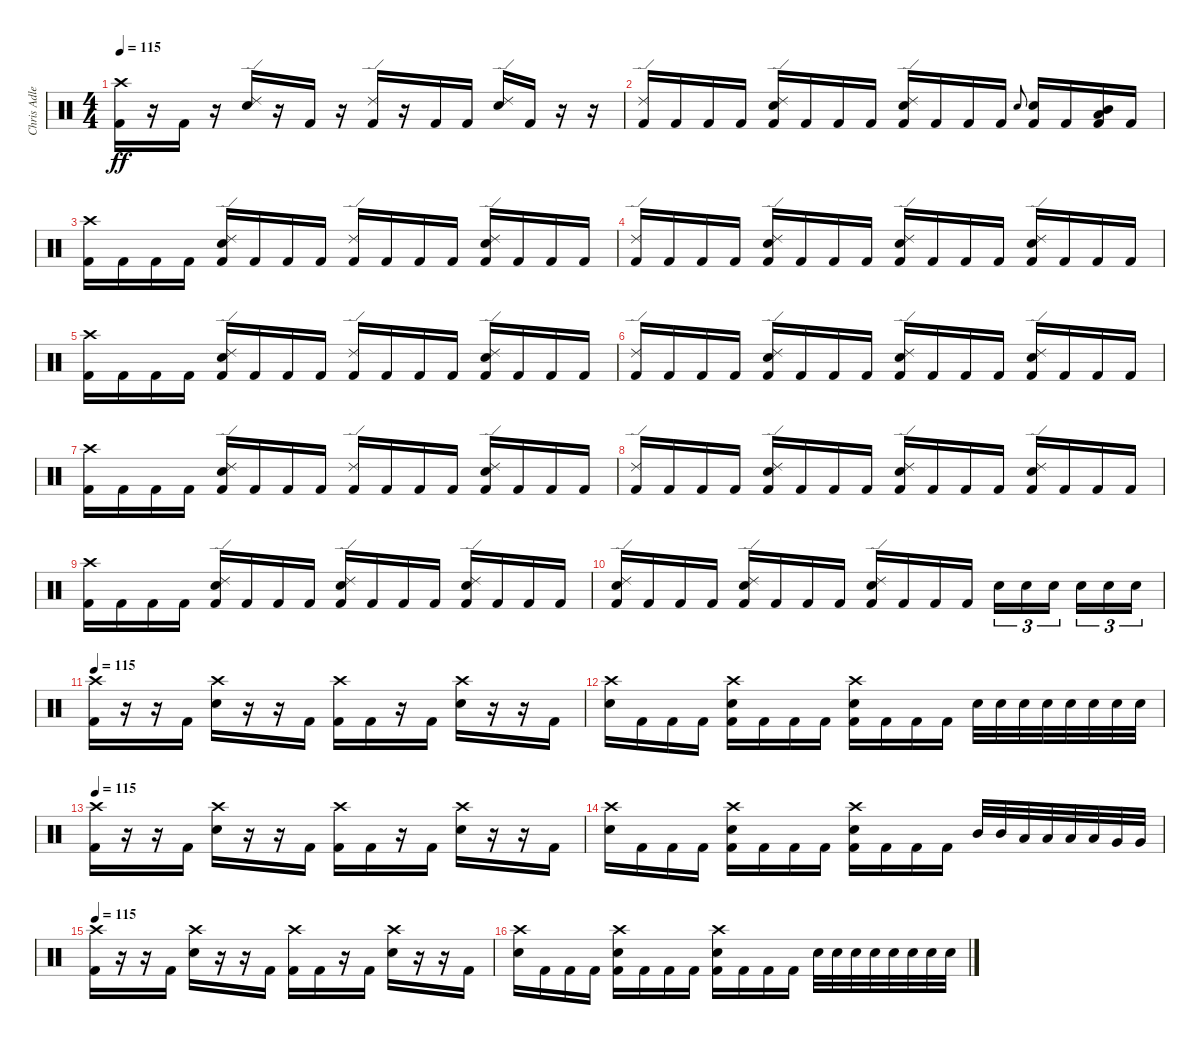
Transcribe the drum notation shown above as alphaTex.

\track ("Chris Adler" "Chris Adle") {instrument percussion}
\staff {score}
\articulation defaults
\ts (4 4)
\tempo 115
\clef neutral
\ks c
("Crash high (hit)" "Kick (hit) 2").16{dy ff} r.16 "Kick (hit) 2".16 r.16 ("Ride (edge) 2" "Snare (hit) 2").16 r.16 "Kick (hit) 2".16 r.16 ("Ride (edge) 2" "Kick (hit) 2").16 r.16 "Kick (hit) 2".16 "Kick (hit) 2".16 ("Ride (edge) 2" "Snare (hit) 2").16 "Kick (hit) 2".16 r.16 r.16 |
("Ride (edge) 2" "Kick (hit) 2").16 "Kick (hit) 2".16 "Kick (hit) 2".16 "Kick (hit) 2".16 ("Ride (edge) 2" "Snare (hit) 2" "Kick (hit) 2").16 "Kick (hit) 2".16 "Kick (hit) 2".16 "Kick (hit) 2".16 ("Ride (edge) 2" "Snare (hit) 2" "Kick (hit) 2").16 "Kick (hit) 2".16 "Kick (hit) 2".16 "Kick (hit) 2".16 "Snare (hit) 2".8{gr onbeat} ("Snare (hit) 2" "Kick (hit) 2").16 "Kick (hit) 2".16 ("Mid Tom (hit)" "Low Tom (hit)" "Kick (hit) 2").16 "Kick (hit) 2".16 |
("Crash high (hit)" "Kick (hit) 2").16 "Kick (hit) 2".16 "Kick (hit) 2".16 "Kick (hit) 2".16 ("Ride (edge) 2" "Snare (hit) 2" "Kick (hit) 2").16 "Kick (hit) 2".16 "Kick (hit) 2".16 "Kick (hit) 2".16 ("Ride (edge) 2" "Kick (hit) 2").16 "Kick (hit) 2".16 "Kick (hit) 2".16 "Kick (hit) 2".16 ("Ride (edge) 2" "Snare (hit) 2" "Kick (hit) 2").16 "Kick (hit) 2".16 "Kick (hit) 2".16 "Kick (hit) 2".16 |
("Ride (edge) 2" "Kick (hit) 2").16 "Kick (hit) 2".16 "Kick (hit) 2".16 "Kick (hit) 2".16 ("Ride (edge) 2" "Snare (hit) 2" "Kick (hit) 2").16 "Kick (hit) 2".16 "Kick (hit) 2".16 "Kick (hit) 2".16 ("Ride (edge) 2" "Snare (hit) 2" "Kick (hit) 2").16 "Kick (hit) 2".16 "Kick (hit) 2".16 "Kick (hit) 2".16 ("Ride (edge) 2" "Snare (hit) 2" "Kick (hit) 2").16 "Kick (hit) 2".16 "Kick (hit) 2".16 "Kick (hit) 2".16 |
("Crash high (hit)" "Kick (hit) 2").16 "Kick (hit) 2".16 "Kick (hit) 2".16 "Kick (hit) 2".16 ("Ride (edge) 2" "Snare (hit) 2" "Kick (hit) 2").16 "Kick (hit) 2".16 "Kick (hit) 2".16 "Kick (hit) 2".16 ("Ride (edge) 2" "Kick (hit) 2").16 "Kick (hit) 2".16 "Kick (hit) 2".16 "Kick (hit) 2".16 ("Ride (edge) 2" "Snare (hit) 2" "Kick (hit) 2").16 "Kick (hit) 2".16 "Kick (hit) 2".16 "Kick (hit) 2".16 |
("Ride (edge) 2" "Kick (hit) 2").16 "Kick (hit) 2".16 "Kick (hit) 2".16 "Kick (hit) 2".16 ("Ride (edge) 2" "Snare (hit) 2" "Kick (hit) 2").16 "Kick (hit) 2".16 "Kick (hit) 2".16 "Kick (hit) 2".16 ("Ride (edge) 2" "Snare (hit) 2" "Kick (hit) 2").16 "Kick (hit) 2".16 "Kick (hit) 2".16 "Kick (hit) 2".16 ("Ride (edge) 2" "Snare (hit) 2" "Kick (hit) 2").16 "Kick (hit) 2".16 "Kick (hit) 2".16 "Kick (hit) 2".16 |
("Crash high (hit)" "Kick (hit) 2").16 "Kick (hit) 2".16 "Kick (hit) 2".16 "Kick (hit) 2".16 ("Ride (edge) 2" "Snare (hit) 2" "Kick (hit) 2").16 "Kick (hit) 2".16 "Kick (hit) 2".16 "Kick (hit) 2".16 ("Ride (edge) 2" "Kick (hit) 2").16 "Kick (hit) 2".16 "Kick (hit) 2".16 "Kick (hit) 2".16 ("Ride (edge) 2" "Snare (hit) 2" "Kick (hit) 2").16 "Kick (hit) 2".16 "Kick (hit) 2".16 "Kick (hit) 2".16 |
("Ride (edge) 2" "Kick (hit) 2").16 "Kick (hit) 2".16 "Kick (hit) 2".16 "Kick (hit) 2".16 ("Ride (edge) 2" "Snare (hit) 2" "Kick (hit) 2").16 "Kick (hit) 2".16 "Kick (hit) 2".16 "Kick (hit) 2".16 ("Ride (edge) 2" "Snare (hit) 2" "Kick (hit) 2").16 "Kick (hit) 2".16 "Kick (hit) 2".16 "Kick (hit) 2".16 ("Ride (edge) 2" "Snare (hit) 2" "Kick (hit) 2").16 "Kick (hit) 2".16 "Kick (hit) 2".16 "Kick (hit) 2".16 |
("Crash high (hit)" "Kick (hit) 2").16 "Kick (hit) 2".16 "Kick (hit) 2".16 "Kick (hit) 2".16 ("Ride (edge) 2" "Snare (hit) 2" "Kick (hit) 2").16 "Kick (hit) 2".16 "Kick (hit) 2".16 "Kick (hit) 2".16 ("Ride (edge) 2" "Snare (hit) 2" "Kick (hit) 2").16 "Kick (hit) 2".16 "Kick (hit) 2".16 "Kick (hit) 2".16 ("Ride (edge) 2" "Snare (hit) 2" "Kick (hit) 2").16 "Kick (hit) 2".16 "Kick (hit) 2".16 "Kick (hit) 2".16 |
("Ride (edge) 2" "Snare (hit) 2" "Kick (hit) 2").16 "Kick (hit) 2".16 "Kick (hit) 2".16 "Kick (hit) 2".16 ("Ride (edge) 2" "Snare (hit) 2" "Kick (hit) 2").16 "Kick (hit) 2".16 "Kick (hit) 2".16 "Kick (hit) 2".16 ("Ride (edge) 2" "Snare (hit) 2" "Kick (hit) 2").16 "Kick (hit) 2".16 "Kick (hit) 2".16 "Kick (hit) 2".16 "Snare (hit) 2".16{tu (3 2)} "Snare (hit) 2".16{tu (3 2)} "Snare (hit) 2".16{tu (3 2) beam splitsecondary} "Snare (hit) 2".16{tu (3 2)} "Snare (hit) 2".16{tu (3 2)} "Snare (hit) 2".16{tu (3 2)} |
\tempo 115
("Crash high (hit)" "Kick (hit) 2").16 r.16 r.16 "Kick (hit) 2".16 ("Crash high (hit)" "Snare (hit) 2").16 r.16 r.16 "Kick (hit) 2".16 ("Crash high (hit)" "Kick (hit) 2").16 "Kick (hit) 2".16 r.16 "Kick (hit) 2".16 ("Crash high (hit)" "Snare (hit) 2").16 r.16 r.16 "Kick (hit) 2".16 |
("Crash high (hit)" "Snare (hit) 2").16 "Kick (hit) 2".16 "Kick (hit) 2".16 "Kick (hit) 2".16 ("Crash high (hit)" "Snare (hit) 2" "Kick (hit) 2").16 "Kick (hit) 2".16 "Kick (hit) 2".16 "Kick (hit) 2".16 ("Crash high (hit)" "Snare (hit) 2" "Kick (hit) 2").16 "Kick (hit) 2".16 "Kick (hit) 2".16 "Kick (hit) 2".16 "Snare (hit) 2".32 "Snare (hit) 2".32 "Snare (hit) 2".32 "Snare (hit) 2".32 "Snare (hit) 2".32 "Snare (hit) 2".32 "Snare (hit) 2".32 "Snare (hit) 2".32 |
\tempo 115
("Crash high (hit)" "Kick (hit) 2").16 r.16 r.16 "Kick (hit) 2".16 ("Crash high (hit)" "Snare (hit) 2").16 r.16 r.16 "Kick (hit) 2".16 ("Crash high (hit)" "Kick (hit) 2").16 "Kick (hit) 2".16 r.16 "Kick (hit) 2".16 ("Crash high (hit)" "Snare (hit) 2").16 r.16 r.16 "Kick (hit) 2".16 |
("Crash high (hit)" "Snare (hit) 2").16 "Kick (hit) 2".16 "Kick (hit) 2".16 "Kick (hit) 2".16 ("Crash high (hit)" "Snare (hit) 2" "Kick (hit) 2").16 "Kick (hit) 2".16 "Kick (hit) 2".16 "Kick (hit) 2".16 ("Crash high (hit)" "Snare (hit) 2" "Kick (hit) 2").16 "Kick (hit) 2".16 "Kick (hit) 2".16 "Kick (hit) 2".16 "Mid Tom (hit)".32 "Mid Tom (hit)".32 "Low Tom (hit)".32 "Low Tom (hit)".32 "Low Tom (hit)".32 "Low Tom (hit)".32 "Very Low Tom (hit)".32 "Very Low Tom (hit)".32 |
\tempo 115
("Crash high (hit)" "Kick (hit) 2").16 r.16 r.16 "Kick (hit) 2".16 ("Crash high (hit)" "Snare (hit) 2").16 r.16 r.16 "Kick (hit) 2".16 ("Crash high (hit)" "Kick (hit) 2").16 "Kick (hit) 2".16 r.16 "Kick (hit) 2".16 ("Crash high (hit)" "Snare (hit) 2").16 r.16 r.16 "Kick (hit) 2".16 |
("Crash high (hit)" "Snare (hit) 2").16 "Kick (hit) 2".16 "Kick (hit) 2".16 "Kick (hit) 2".16 ("Crash high (hit)" "Snare (hit) 2" "Kick (hit) 2").16 "Kick (hit) 2".16 "Kick (hit) 2".16 "Kick (hit) 2".16 ("Crash high (hit)" "Snare (hit) 2" "Kick (hit) 2").16 "Kick (hit) 2".16 "Kick (hit) 2".16 "Kick (hit) 2".16 "Snare (hit) 2".32 "Snare (hit) 2".32 "Snare (hit) 2".32 "Snare (hit) 2".32 "Snare (hit) 2".32 "Snare (hit) 2".32 "Snare (hit) 2".32 "Snare (hit) 2".32
